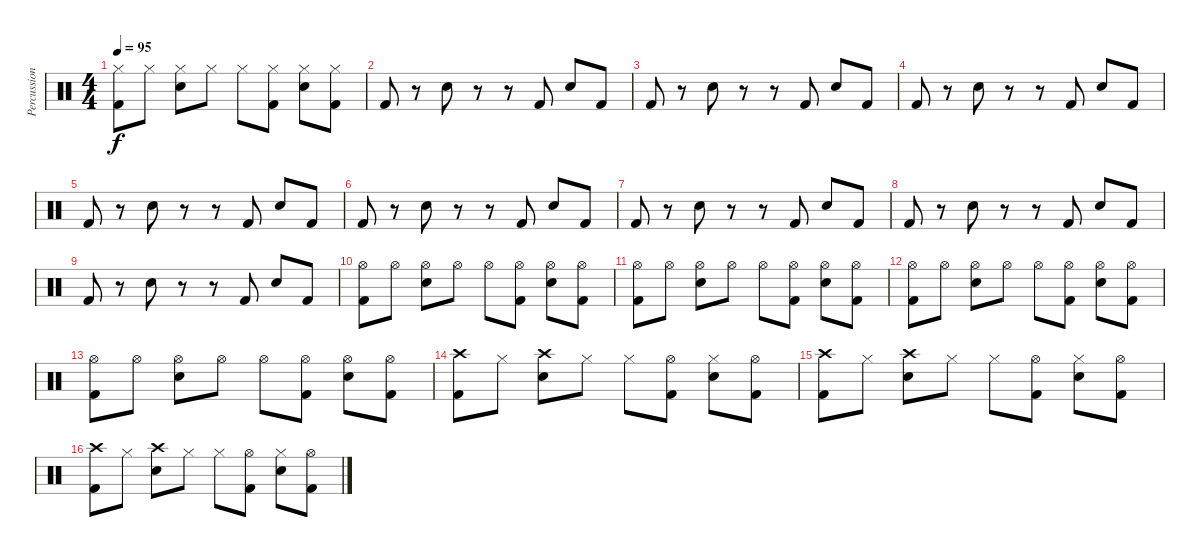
\track ("Percussion" "Percussion") {instrument percussion}
\staff {score}
\articulation defaults
\ts (4 4)
\tempo 95
\clef neutral
\ks c
("Hi-Hat (closed)" "Kick (hit) 2").8{dy f} "Hi-Hat (closed)".8 ("Hi-Hat (closed)" "Snare (hit) 2").8 "Hi-Hat (closed)".8 "Hi-Hat (closed)".8 ("Hi-Hat (closed)" "Kick (hit) 2").8 ("Hi-Hat (closed)" "Snare (hit) 2").8 ("Hi-Hat (closed)" "Kick (hit) 2").8 |
"Kick (hit) 2".8 r.8 "Snare (hit) 2".8 r.8 r.8 "Kick (hit) 2".8 "Snare (hit) 2".8 "Kick (hit) 2".8 |
"Kick (hit) 2".8 r.8 "Snare (hit) 2".8 r.8 r.8 "Kick (hit) 2".8 "Snare (hit) 2".8 "Kick (hit) 2".8 |
"Kick (hit) 2".8 r.8 "Snare (hit) 2".8 r.8 r.8 "Kick (hit) 2".8 "Snare (hit) 2".8 "Kick (hit) 2".8 |
"Kick (hit) 2".8 r.8 "Snare (hit) 2".8 r.8 r.8 "Kick (hit) 2".8 "Snare (hit) 2".8 "Kick (hit) 2".8 |
"Kick (hit) 2".8 r.8 "Snare (hit) 2".8 r.8 r.8 "Kick (hit) 2".8 "Snare (hit) 2".8 "Kick (hit) 2".8 |
"Kick (hit) 2".8 r.8 "Snare (hit) 2".8 r.8 r.8 "Kick (hit) 2".8 "Snare (hit) 2".8 "Kick (hit) 2".8 |
"Kick (hit) 2".8 r.8 "Snare (hit) 2".8 r.8 r.8 "Kick (hit) 2".8 "Snare (hit) 2".8 "Kick (hit) 2".8 |
"Kick (hit) 2".8 r.8 "Snare (hit) 2".8 r.8 r.8 "Kick (hit) 2".8 "Snare (hit) 2".8 "Kick (hit) 2".8 |
("Hi-Hat (open)" "Kick (hit) 2").8 "Hi-Hat (open)".8 ("Hi-Hat (open)" "Snare (hit) 2").8 "Hi-Hat (open)".8 "Hi-Hat (open)".8 ("Hi-Hat (open)" "Kick (hit) 2").8 ("Hi-Hat (open)" "Snare (hit) 2").8 ("Hi-Hat (open)" "Kick (hit) 2").8 |
("Hi-Hat (open)" "Kick (hit) 2").8 "Hi-Hat (open)".8 ("Hi-Hat (open)" "Snare (hit) 2").8 "Hi-Hat (open)".8 "Hi-Hat (open)".8 ("Hi-Hat (open)" "Kick (hit) 2").8 ("Hi-Hat (open)" "Snare (hit) 2").8 ("Hi-Hat (open)" "Kick (hit) 2").8 |
("Hi-Hat (open)" "Kick (hit) 2").8 "Hi-Hat (open)".8 ("Hi-Hat (open)" "Snare (hit) 2").8 "Hi-Hat (open)".8 "Hi-Hat (open)".8 ("Hi-Hat (open)" "Kick (hit) 2").8 ("Hi-Hat (open)" "Snare (hit) 2").8 ("Hi-Hat (open)" "Kick (hit) 2").8 |
("Hi-Hat (open)" "Kick (hit) 2").8 "Hi-Hat (open)".8 ("Hi-Hat (open)" "Snare (hit) 2").8 "Hi-Hat (open)".8 "Hi-Hat (open)".8 ("Hi-Hat (open)" "Kick (hit) 2").8 ("Hi-Hat (open)" "Snare (hit) 2").8 ("Hi-Hat (open)" "Kick (hit) 2").8 |
("Crash high (hit)" "Kick (hit) 2").8{volume 12} "Hi-Hat (closed)".8 ("Crash high (hit)" "Snare (hit) 2").8 "Hi-Hat (closed)".8 "Hi-Hat (closed)".8 ("Hi-Hat (open)" "Kick (hit) 2").8 ("Hi-Hat (closed)" "Snare (hit) 2").8 ("Hi-Hat (open)" "Kick (hit) 2").8 |
("Crash high (hit)" "Kick (hit) 2").8 "Hi-Hat (closed)".8 ("Crash high (hit)" "Snare (hit) 2").8 "Hi-Hat (closed)".8 "Hi-Hat (closed)".8 ("Hi-Hat (open)" "Kick (hit) 2").8 ("Hi-Hat (closed)" "Snare (hit) 2").8 ("Hi-Hat (open)" "Kick (hit) 2").8 |
("Crash high (hit)" "Kick (hit) 2").8 "Hi-Hat (closed)".8 ("Crash high (hit)" "Snare (hit) 2").8 "Hi-Hat (closed)".8 "Hi-Hat (closed)".8 ("Hi-Hat (open)" "Kick (hit) 2").8 ("Hi-Hat (closed)" "Snare (hit) 2").8 ("Hi-Hat (open)" "Kick (hit) 2").8
